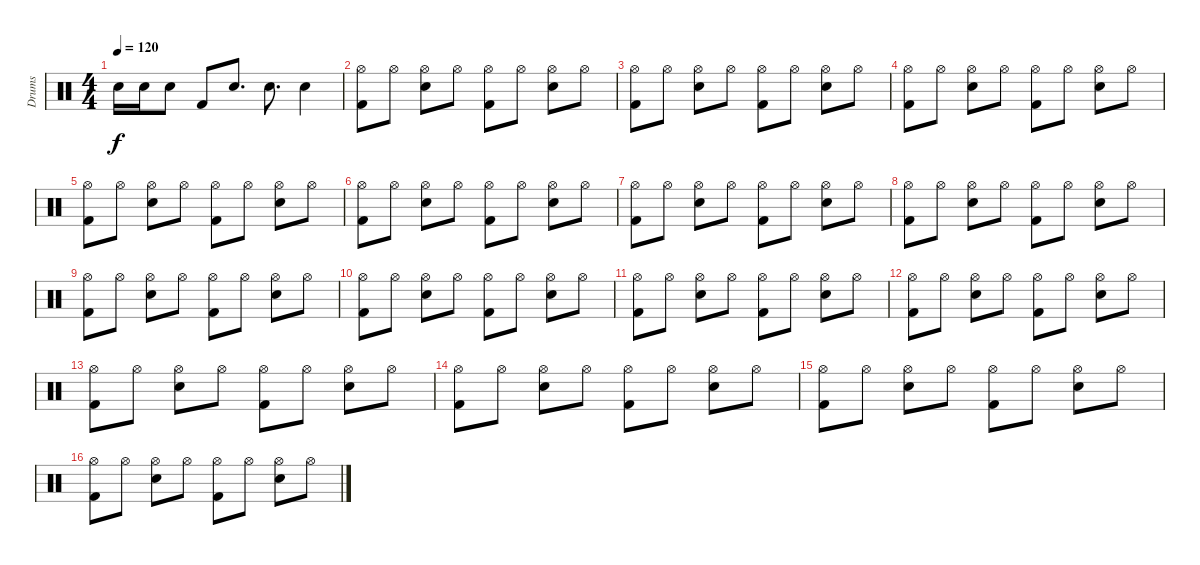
\track ("Drums" "Drums") {instrument percussion}
\staff {score}
\articulation defaults
\ts (4 4)
\tempo 120
\clef neutral
\ks c "Snare (hit) 2".16{dy f} "Snare (hit) 2".16 "Snare (hit) 2".8 "Kick (hit) 2".8 "Snare (hit) 2".8{d} "Snare (hit) 2".8{d} "Snare (hit) 2".4
|
("Hi-Hat (open)" "Kick (hit) 2").8 "Hi-Hat (open)".8 ("Hi-Hat (open)" "Snare (hit) 2").8 "Hi-Hat (open)".8 ("Hi-Hat (open)" "Kick (hit) 2").8 "Hi-Hat (open)".8 ("Hi-Hat (open)" "Snare (hit) 2").8 "Hi-Hat (open)".8 |
("Hi-Hat (open)" "Kick (hit) 2").8 "Hi-Hat (open)".8 ("Hi-Hat (open)" "Snare (hit) 2").8 "Hi-Hat (open)".8 ("Hi-Hat (open)" "Kick (hit) 2").8 "Hi-Hat (open)".8 ("Hi-Hat (open)" "Snare (hit) 2").8 "Hi-Hat (open)".8 |
("Hi-Hat (open)" "Kick (hit) 2").8 "Hi-Hat (open)".8 ("Hi-Hat (open)" "Snare (hit) 2").8 "Hi-Hat (open)".8 ("Hi-Hat (open)" "Kick (hit) 2").8 "Hi-Hat (open)".8 ("Hi-Hat (open)" "Snare (hit) 2").8 "Hi-Hat (open)".8 |
("Hi-Hat (open)" "Kick (hit) 2").8 "Hi-Hat (open)".8 ("Hi-Hat (open)" "Snare (hit) 2").8 "Hi-Hat (open)".8 ("Hi-Hat (open)" "Kick (hit) 2").8 "Hi-Hat (open)".8 ("Hi-Hat (open)" "Snare (hit) 2").8 "Hi-Hat (open)".8 |
("Hi-Hat (open)" "Kick (hit) 2").8 "Hi-Hat (open)".8 ("Hi-Hat (open)" "Snare (hit) 2").8 "Hi-Hat (open)".8 ("Hi-Hat (open)" "Kick (hit) 2").8 "Hi-Hat (open)".8 ("Hi-Hat (open)" "Snare (hit) 2").8 "Hi-Hat (open)".8 |
("Hi-Hat (open)" "Kick (hit) 2").8 "Hi-Hat (open)".8 ("Hi-Hat (open)" "Snare (hit) 2").8 "Hi-Hat (open)".8 ("Hi-Hat (open)" "Kick (hit) 2").8 "Hi-Hat (open)".8 ("Hi-Hat (open)" "Snare (hit) 2").8 "Hi-Hat (open)".8 |
("Hi-Hat (open)" "Kick (hit) 2").8 "Hi-Hat (open)".8 ("Hi-Hat (open)" "Snare (hit) 2").8 "Hi-Hat (open)".8 ("Hi-Hat (open)" "Kick (hit) 2").8 "Hi-Hat (open)".8 ("Hi-Hat (open)" "Snare (hit) 2").8 "Hi-Hat (open)".8 |
("Hi-Hat (open)" "Kick (hit) 2").8 "Hi-Hat (open)".8 ("Hi-Hat (open)" "Snare (hit) 2").8 "Hi-Hat (open)".8 ("Hi-Hat (open)" "Kick (hit) 2").8 "Hi-Hat (open)".8 ("Hi-Hat (open)" "Snare (hit) 2").8 "Hi-Hat (open)".8 |
("Hi-Hat (open)" "Kick (hit) 2").8 "Hi-Hat (open)".8 ("Hi-Hat (open)" "Snare (hit) 2").8 "Hi-Hat (open)".8 ("Hi-Hat (open)" "Kick (hit) 2").8 "Hi-Hat (open)".8 ("Hi-Hat (open)" "Snare (hit) 2").8 "Hi-Hat (open)".8 |
("Hi-Hat (open)" "Kick (hit) 2").8 "Hi-Hat (open)".8 ("Hi-Hat (open)" "Snare (hit) 2").8 "Hi-Hat (open)".8 ("Hi-Hat (open)" "Kick (hit) 2").8 "Hi-Hat (open)".8 ("Hi-Hat (open)" "Snare (hit) 2").8 "Hi-Hat (open)".8 |
("Hi-Hat (open)" "Kick (hit) 2").8 "Hi-Hat (open)".8 ("Hi-Hat (open)" "Snare (hit) 2").8 "Hi-Hat (open)".8 ("Hi-Hat (open)" "Kick (hit) 2").8 "Hi-Hat (open)".8 ("Hi-Hat (open)" "Snare (hit) 2").8 "Hi-Hat (open)".8 |
("Hi-Hat (open)" "Kick (hit) 2").8 "Hi-Hat (open)".8 ("Hi-Hat (open)" "Snare (hit) 2").8 "Hi-Hat (open)".8 ("Hi-Hat (open)" "Kick (hit) 2").8 "Hi-Hat (open)".8 ("Hi-Hat (open)" "Snare (hit) 2").8 "Hi-Hat (open)".8 |
("Hi-Hat (open)" "Kick (hit) 2").8 "Hi-Hat (open)".8 ("Hi-Hat (open)" "Snare (hit) 2").8 "Hi-Hat (open)".8 ("Hi-Hat (open)" "Kick (hit) 2").8 "Hi-Hat (open)".8 ("Hi-Hat (open)" "Snare (hit) 2").8 "Hi-Hat (open)".8 |
("Hi-Hat (open)" "Kick (hit) 2").8 "Hi-Hat (open)".8 ("Hi-Hat (open)" "Snare (hit) 2").8 "Hi-Hat (open)".8 ("Hi-Hat (open)" "Kick (hit) 2").8 "Hi-Hat (open)".8 ("Hi-Hat (open)" "Snare (hit) 2").8 "Hi-Hat (open)".8 |
("Hi-Hat (open)" "Kick (hit) 2").8 "Hi-Hat (open)".8 ("Hi-Hat (open)" "Snare (hit) 2").8 "Hi-Hat (open)".8 ("Hi-Hat (open)" "Kick (hit) 2").8 "Hi-Hat (open)".8 ("Hi-Hat (open)" "Snare (hit) 2").8 "Hi-Hat (open)".8
